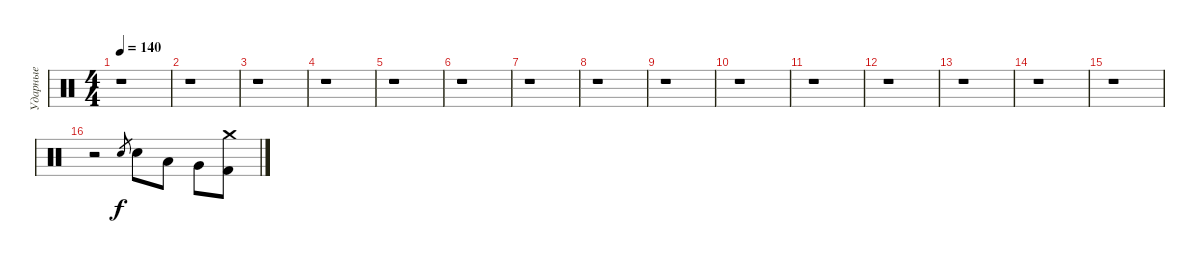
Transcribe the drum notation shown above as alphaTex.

\track ("Ударные" "Ударные") {instrument percussion}
\staff {score}
\articulation defaults
\ts (4 4)
\tempo 140
\clef neutral
\ks c
r.1{dy f} |
r.1 |
r.1 |
r.1 |
r.1 |
r.1 |
r.1 |
r.1 |
r.1 |
r.1 |
r.1 |
r.1 |
r.1 |
r.1 |
r.1 |
r.2 "Snare (hit) 2".8{gr} "Snare (hit) 2".8 "Low Tom (hit)".8 "Very Low Tom (hit)".8 ("Crash medium (hit)" "Kick (hit) 2").8
